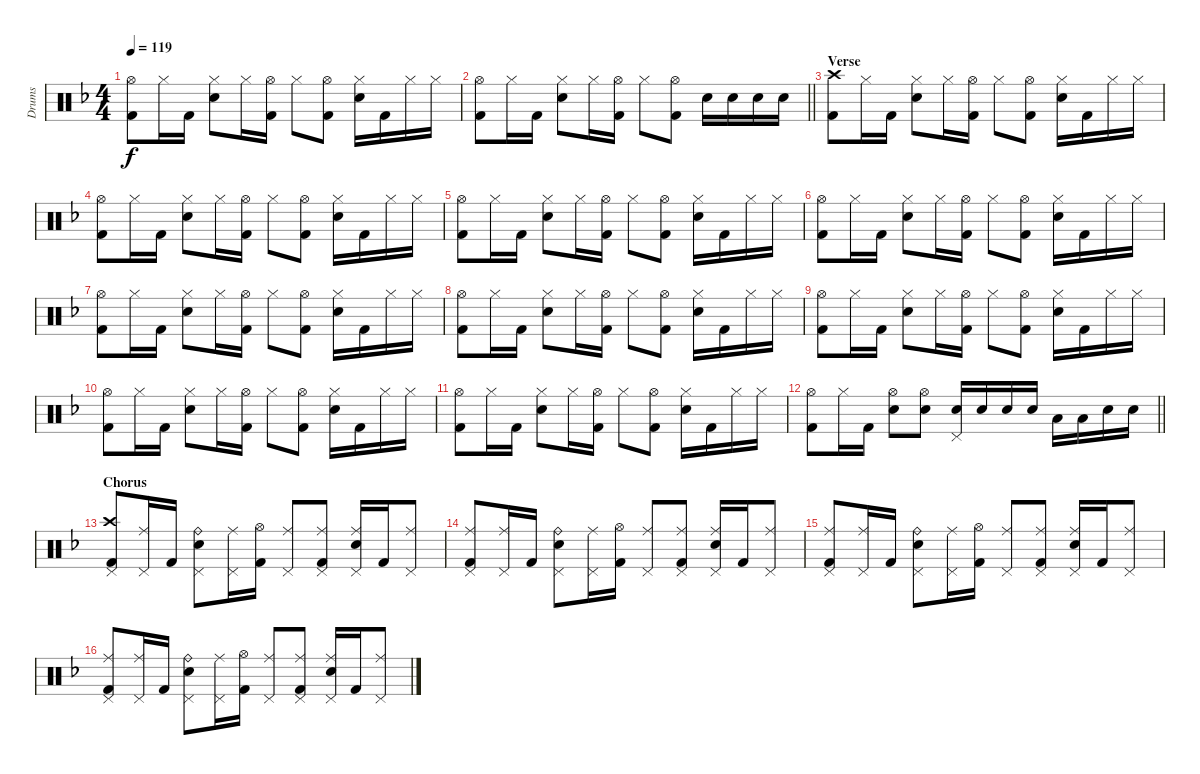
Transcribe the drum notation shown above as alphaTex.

\track ("Drums" "Drums") {instrument percussion}
\staff {score}
\articulation defaults
\ts (4 4)
\tempo 119
\clef neutral
\ks dminor
("Hi-Hat (open)" "Kick (hit) 2").8{dy f} "Hi-Hat (closed)".16 "Kick (hit) 2".16 ("Hi-Hat (closed)" "Electric Snare (hit)").8 "Hi-Hat (closed)".16 ("Hi-Hat (open)" "Kick (hit) 2").16 "Hi-Hat (closed)".8 ("Hi-Hat (open)" "Kick (hit) 2").8 ("Hi-Hat (closed)" "Electric Snare (hit)").16 "Kick (hit) 2".16 "Hi-Hat (closed)".16 "Hi-Hat (closed)".16 |
\barLineRight lightlight
("Hi-Hat (open)" "Kick (hit) 2").8 "Hi-Hat (closed)".16 "Kick (hit) 2".16 ("Hi-Hat (closed)" "Electric Snare (hit)").8 "Hi-Hat (closed)".16 ("Hi-Hat (open)" "Kick (hit) 2").16 "Hi-Hat (closed)".8 ("Hi-Hat (open)" "Kick (hit) 2").8 "Electric Snare (hit)".16 "Electric Snare (hit)".16 "Electric Snare (hit)".16 "Electric Snare (hit)".16 |
\section ("" "Verse")
("Crash high (hit)" "Kick (hit) 2").8 "Hi-Hat (closed)".16 "Kick (hit) 2".16 ("Hi-Hat (closed)" "Electric Snare (hit)").8 "Hi-Hat (closed)".16 ("Hi-Hat (open)" "Kick (hit) 2").16 "Hi-Hat (closed)".8 ("Hi-Hat (open)" "Kick (hit) 2").8 ("Hi-Hat (closed)" "Electric Snare (hit)").16 "Kick (hit) 2".16 "Hi-Hat (closed)".16 "Hi-Hat (closed)".16 |
("Hi-Hat (open)" "Kick (hit) 2").8 "Hi-Hat (closed)".16 "Kick (hit) 2".16 ("Hi-Hat (closed)" "Electric Snare (hit)").8 "Hi-Hat (closed)".16 ("Hi-Hat (open)" "Kick (hit) 2").16 "Hi-Hat (closed)".8 ("Hi-Hat (open)" "Kick (hit) 2").8 ("Hi-Hat (closed)" "Electric Snare (hit)").16 "Kick (hit) 2".16 "Hi-Hat (closed)".16 "Hi-Hat (closed)".16 |
("Hi-Hat (open)" "Kick (hit) 2").8 "Hi-Hat (closed)".16 "Kick (hit) 2".16 ("Hi-Hat (closed)" "Electric Snare (hit)").8 "Hi-Hat (closed)".16 ("Hi-Hat (open)" "Kick (hit) 2").16 "Hi-Hat (closed)".8 ("Hi-Hat (open)" "Kick (hit) 2").8 ("Hi-Hat (closed)" "Electric Snare (hit)").16 "Kick (hit) 2".16 "Hi-Hat (closed)".16 "Hi-Hat (closed)".16 |
("Hi-Hat (open)" "Kick (hit) 2").8 "Hi-Hat (closed)".16 "Kick (hit) 2".16 ("Hi-Hat (closed)" "Electric Snare (hit)").8 "Hi-Hat (closed)".16 ("Hi-Hat (open)" "Kick (hit) 2").16 "Hi-Hat (closed)".8 ("Hi-Hat (open)" "Kick (hit) 2").8 ("Hi-Hat (closed)" "Electric Snare (hit)").16 "Kick (hit) 2".16 "Hi-Hat (closed)".16 "Hi-Hat (closed)".16 |
("Hi-Hat (open)" "Kick (hit) 2").8 "Hi-Hat (closed)".16 "Kick (hit) 2".16 ("Hi-Hat (closed)" "Electric Snare (hit)").8 "Hi-Hat (closed)".16 ("Hi-Hat (open)" "Kick (hit) 2").16 "Hi-Hat (closed)".8 ("Hi-Hat (open)" "Kick (hit) 2").8 ("Hi-Hat (closed)" "Electric Snare (hit)").16 "Kick (hit) 2".16 "Hi-Hat (closed)".16 "Hi-Hat (closed)".16 |
("Hi-Hat (open)" "Kick (hit) 2").8 "Hi-Hat (closed)".16 "Kick (hit) 2".16 ("Hi-Hat (closed)" "Electric Snare (hit)").8 "Hi-Hat (closed)".16 ("Hi-Hat (open)" "Kick (hit) 2").16 "Hi-Hat (closed)".8 ("Hi-Hat (open)" "Kick (hit) 2").8 ("Hi-Hat (closed)" "Electric Snare (hit)").16 "Kick (hit) 2".16 "Hi-Hat (closed)".16 "Hi-Hat (closed)".16 |
("Hi-Hat (open)" "Kick (hit) 2").8 "Hi-Hat (closed)".16 "Kick (hit) 2".16 ("Hi-Hat (closed)" "Electric Snare (hit)").8 "Hi-Hat (closed)".16 ("Hi-Hat (open)" "Kick (hit) 2").16 "Hi-Hat (closed)".8 ("Hi-Hat (open)" "Kick (hit) 2").8 ("Hi-Hat (closed)" "Electric Snare (hit)").16 "Kick (hit) 2".16 "Hi-Hat (closed)".16 "Hi-Hat (closed)".16 |
("Hi-Hat (open)" "Kick (hit) 2").8 "Hi-Hat (closed)".16 "Kick (hit) 2".16 ("Hi-Hat (closed)" "Electric Snare (hit)").8 "Hi-Hat (closed)".16 ("Hi-Hat (open)" "Kick (hit) 2").16 "Hi-Hat (closed)".8 ("Hi-Hat (open)" "Kick (hit) 2").8 ("Hi-Hat (closed)" "Electric Snare (hit)").16 "Kick (hit) 2".16 "Hi-Hat (closed)".16 "Hi-Hat (closed)".16 |
("Hi-Hat (open)" "Kick (hit) 2").8 "Hi-Hat (closed)".16 "Kick (hit) 2".16 ("Hi-Hat (closed)" "Electric Snare (hit)").8 "Hi-Hat (closed)".16 ("Hi-Hat (open)" "Kick (hit) 2").16 "Hi-Hat (closed)".8 ("Hi-Hat (open)" "Kick (hit) 2").8 ("Hi-Hat (closed)" "Electric Snare (hit)").16 "Kick (hit) 2".16 "Hi-Hat (closed)".16 "Hi-Hat (closed)".16 |
\barLineRight lightlight
("Hi-Hat (open)" "Kick (hit) 2").8 "Hi-Hat (closed)".16 "Kick (hit) 2".16 ("Hi-Hat (open)" "Electric Snare (hit)").8 ("Hi-Hat (open)" "Electric Snare (hit)").8 ("Electric Snare (hit)" "Pedal Hi-Hat (hit)").16 "Electric Snare (hit)".16 "Electric Snare (hit)".16 "Electric Snare (hit)".16 "Low Tom (hit)".16 "Low Tom (hit)".16 "Electric Snare (hit)".16 "Electric Snare (hit)".16 |
\section ("" "Chorus")
("Crash high (hit)" "Pedal Hi-Hat (hit)" "Kick (hit) 2").8 ("Ride (middle)" "Pedal Hi-Hat (hit)").16 "Kick (hit) 2".16 ("Ride (bell)" "Electric Snare (hit)" "Pedal Hi-Hat (hit)").8 ("Ride (middle)" "Pedal Hi-Hat (hit)").16 ("Hi-Hat (open)" "Kick (hit) 2").16 ("Ride (middle)" "Pedal Hi-Hat (hit)").8 ("Ride (middle)" "Pedal Hi-Hat (hit)" "Kick (hit) 2").8 ("Ride (middle)" "Electric Snare (hit)" "Pedal Hi-Hat (hit)").16 "Kick (hit) 2".16 ("Ride (middle)" "Pedal Hi-Hat (hit)").8 |
("Ride (middle)" "Pedal Hi-Hat (hit)" "Kick (hit) 2").8 ("Ride (middle)" "Pedal Hi-Hat (hit)").16 "Kick (hit) 2".16 ("Ride (bell)" "Electric Snare (hit)" "Pedal Hi-Hat (hit)").8 ("Ride (middle)" "Pedal Hi-Hat (hit)").16 ("Hi-Hat (open)" "Kick (hit) 2").16 ("Ride (middle)" "Pedal Hi-Hat (hit)").8 ("Ride (middle)" "Pedal Hi-Hat (hit)" "Kick (hit) 2").8 ("Ride (middle)" "Electric Snare (hit)" "Pedal Hi-Hat (hit)").16 "Kick (hit) 2".16 ("Ride (middle)" "Pedal Hi-Hat (hit)").8 |
("Ride (middle)" "Pedal Hi-Hat (hit)" "Kick (hit) 2").8 ("Ride (middle)" "Pedal Hi-Hat (hit)").16 "Kick (hit) 2".16 ("Ride (bell)" "Electric Snare (hit)" "Pedal Hi-Hat (hit)").8 ("Ride (middle)" "Pedal Hi-Hat (hit)").16 ("Hi-Hat (open)" "Kick (hit) 2").16 ("Ride (middle)" "Pedal Hi-Hat (hit)").8 ("Ride (middle)" "Pedal Hi-Hat (hit)" "Kick (hit) 2").8 ("Ride (middle)" "Electric Snare (hit)" "Pedal Hi-Hat (hit)").16 "Kick (hit) 2".16 ("Ride (middle)" "Pedal Hi-Hat (hit)").8 |
("Ride (middle)" "Pedal Hi-Hat (hit)" "Kick (hit) 2").8 ("Ride (middle)" "Pedal Hi-Hat (hit)").16 "Kick (hit) 2".16 ("Ride (bell)" "Electric Snare (hit)" "Pedal Hi-Hat (hit)").8 ("Ride (middle)" "Pedal Hi-Hat (hit)").16 ("Hi-Hat (open)" "Kick (hit) 2").16 ("Ride (middle)" "Pedal Hi-Hat (hit)").8 ("Ride (middle)" "Pedal Hi-Hat (hit)" "Kick (hit) 2").8 ("Ride (middle)" "Electric Snare (hit)" "Pedal Hi-Hat (hit)").16 "Kick (hit) 2".16 ("Ride (middle)" "Pedal Hi-Hat (hit)").8
